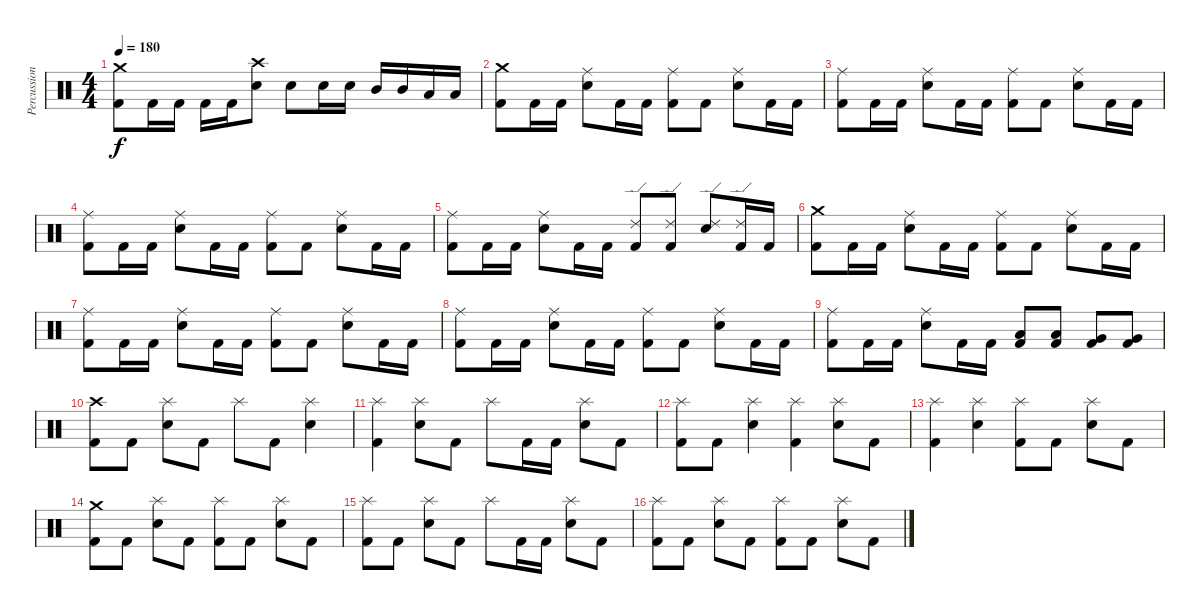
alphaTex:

\track ("Percussion" "Percussion") {instrument percussion}
\staff {score}
\articulation defaults
\ts (4 4)
\tempo 180
\clef neutral
\ks c
("Kick (hit) 2" "Crash medium (hit)").8{dy f} "Kick (hit) 2".16 "Kick (hit) 2".16 "Kick (hit) 2".16 "Kick (hit) 2".16 ("Electric Snare (hit)" "Crash high (hit)").8 "Electric Snare (hit)".8 "Electric Snare (hit)".16 "Electric Snare (hit)".16 "Mid Tom (hit)".16 "Mid Tom (hit)".16 "Low Tom (hit)".16 "Low Tom (hit)".16 |
("Kick (hit) 2" "Crash medium (hit)").8 "Kick (hit) 2".16 "Kick (hit) 2".16 ("Electric Snare (hit)" "Ride (middle)").8 "Kick (hit) 2".16 "Kick (hit) 2".16 ("Kick (hit) 2" "Ride (middle)").8 "Kick (hit) 2".8 ("Electric Snare (hit)" "Ride (middle)").8 "Kick (hit) 2".16 "Kick (hit) 2".16 |
("Kick (hit) 2" "Ride (middle)").8 "Kick (hit) 2".16 "Kick (hit) 2".16 ("Electric Snare (hit)" "Ride (middle)").8 "Kick (hit) 2".16 "Kick (hit) 2".16 ("Kick (hit) 2" "Ride (middle)").8 "Kick (hit) 2".8 ("Electric Snare (hit)" "Ride (middle)").8 "Kick (hit) 2".16 "Kick (hit) 2".16 |
("Kick (hit) 2" "Ride (middle)").8 "Kick (hit) 2".16 "Kick (hit) 2".16 ("Electric Snare (hit)" "Ride (middle)").8 "Kick (hit) 2".16 "Kick (hit) 2".16 ("Kick (hit) 2" "Ride (middle)").8 "Kick (hit) 2".8 ("Electric Snare (hit)" "Ride (middle)").8 "Kick (hit) 2".16 "Kick (hit) 2".16 |
("Kick (hit) 2" "Ride (middle)").8 "Kick (hit) 2".16 "Kick (hit) 2".16 ("Electric Snare (hit)" "Ride (middle)").8 "Kick (hit) 2".16 "Kick (hit) 2".16 ("Kick (hit) 2" "Ride (edge) 2").8 ("Kick (hit) 2" "Ride (edge) 2").8 ("Electric Snare (hit)" "Ride (edge) 2").8 ("Kick (hit) 2" "Ride (edge) 2").16 "Kick (hit) 2".16 |
("Kick (hit) 2" "Crash medium (hit)").8 "Kick (hit) 2".16 "Kick (hit) 2".16 ("Electric Snare (hit)" "Ride (middle)").8 "Kick (hit) 2".16 "Kick (hit) 2".16 ("Kick (hit) 2" "Ride (middle)").8 "Kick (hit) 2".8 ("Electric Snare (hit)" "Ride (middle)").8 "Kick (hit) 2".16 "Kick (hit) 2".16 |
("Kick (hit) 2" "Ride (middle)").8 "Kick (hit) 2".16 "Kick (hit) 2".16 ("Electric Snare (hit)" "Ride (middle)").8 "Kick (hit) 2".16 "Kick (hit) 2".16 ("Kick (hit) 2" "Ride (middle)").8 "Kick (hit) 2".8 ("Electric Snare (hit)" "Ride (middle)").8 "Kick (hit) 2".16 "Kick (hit) 2".16 |
("Kick (hit) 2" "Ride (middle)").8 "Kick (hit) 2".16 "Kick (hit) 2".16 ("Electric Snare (hit)" "Ride (middle)").8 "Kick (hit) 2".16 "Kick (hit) 2".16 ("Kick (hit) 2" "Ride (middle)").8 "Kick (hit) 2".8 ("Electric Snare (hit)" "Ride (middle)").8 "Kick (hit) 2".16 "Kick (hit) 2".16 |
("Kick (hit) 2" "Ride (middle)").8 "Kick (hit) 2".16 "Kick (hit) 2".16 ("Electric Snare (hit)" "Ride (middle)").8 "Kick (hit) 2".16 "Kick (hit) 2".16 ("Kick (hit) 2" "Low Tom (hit)").8 ("Kick (hit) 2" "Low Tom (hit)").8 ("Kick (hit) 2" "Very Low Tom (hit)").8 ("Kick (hit) 2" "Very Low Tom (hit)").8 |
("Kick (hit) 2" "Crash high (hit)").8 "Kick (hit) 2".8 ("Electric Snare (hit)" "Splash (hit)").8 "Kick (hit) 2".8 "Splash (hit)".8 "Kick (hit) 2".8 ("Electric Snare (hit)" "Splash (hit)").4 |
("Kick (hit) 2" "Splash (hit)").4 ("Electric Snare (hit)" "Splash (hit)").8 "Kick (hit) 2".8 "Splash (hit)".8 "Kick (hit) 2".16 "Kick (hit) 2".16 ("Electric Snare (hit)" "Splash (hit)").8 "Kick (hit) 2".8 |
("Kick (hit) 2" "Splash (hit)").8 "Kick (hit) 2".8 ("Electric Snare (hit)" "Splash (hit)").4 ("Kick (hit) 2" "Splash (hit)").4 ("Electric Snare (hit)" "Splash (hit)").8 "Kick (hit) 2".8 |
("Kick (hit) 2" "Splash (hit)").4 ("Electric Snare (hit)" "Splash (hit)").4 ("Kick (hit) 2" "Splash (hit)").8 "Kick (hit) 2".8 ("Electric Snare (hit)" "Splash (hit)").8 "Kick (hit) 2".8 |
("Kick (hit) 2" "Crash medium (hit)").8 "Kick (hit) 2".8 ("Electric Snare (hit)" "Splash (hit)").8 "Kick (hit) 2".8 ("Kick (hit) 2" "Splash (hit)").8 "Kick (hit) 2".8 ("Electric Snare (hit)" "Splash (hit)").8 "Kick (hit) 2".8 |
("Kick (hit) 2" "Splash (hit)").8 "Kick (hit) 2".8 ("Electric Snare (hit)" "Splash (hit)").8 "Kick (hit) 2".8 "Splash (hit)".8 "Kick (hit) 2".16 "Kick (hit) 2".16 ("Electric Snare (hit)" "Splash (hit)").8 "Kick (hit) 2".8 |
("Kick (hit) 2" "Splash (hit)").8 "Kick (hit) 2".8 ("Electric Snare (hit)" "Splash (hit)").8 "Kick (hit) 2".8 ("Kick (hit) 2" "Splash (hit)").8 "Kick (hit) 2".8 ("Electric Snare (hit)" "Splash (hit)").8 "Kick (hit) 2".8
